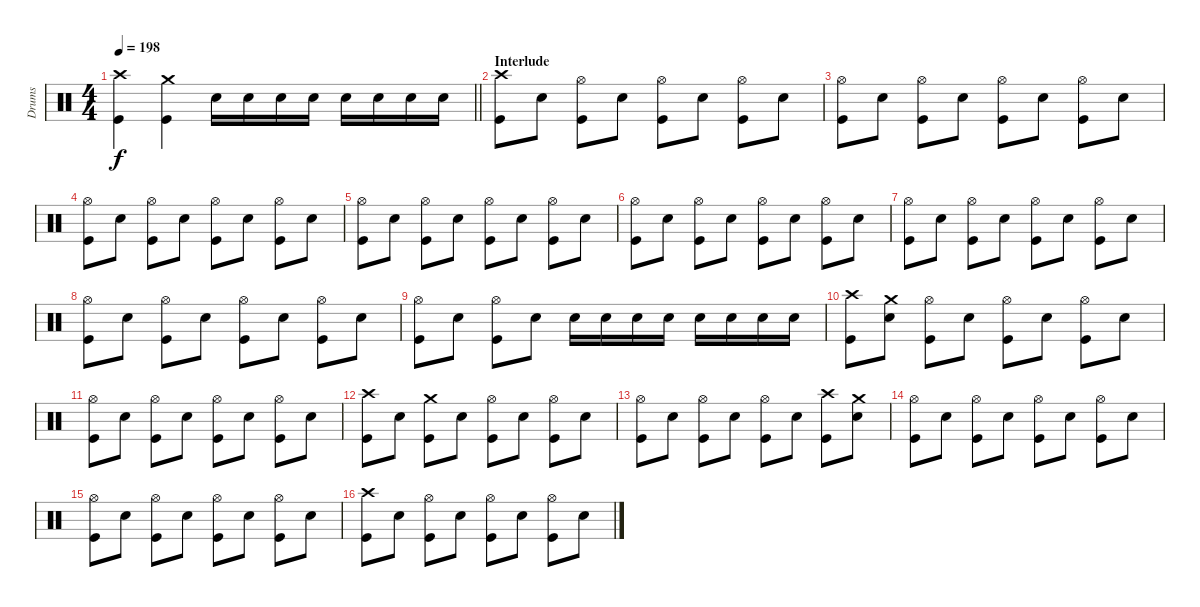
\track ("Drums" "Drums") {instrument percussion}
\staff {score}
\articulation defaults
\ts (4 4)
\tempo 198
\clef neutral
\barLineRight lightlight
\ks c
("Crash high (hit)" "Kick (hit)").4{dy f} ("Crash medium (hit)" "Kick (hit)").4 "Electric Snare (hit)".16 "Electric Snare (hit)".16 "Electric Snare (hit)".16 "Electric Snare (hit)".16 "Electric Snare (hit)".16 "Electric Snare (hit)".16 "Electric Snare (hit)".16 "Electric Snare (hit)".16 |
\section ("" "Interlude")
("Crash high (hit)" "Kick (hit)").8 "Electric Snare (hit)".8 ("Hi-Hat (open)" "Kick (hit)").8 "Electric Snare (hit)".8 ("Hi-Hat (open)" "Kick (hit)").8 "Electric Snare (hit)".8 ("Hi-Hat (open)" "Kick (hit)").8 "Electric Snare (hit)".8 |
("Hi-Hat (open)" "Kick (hit)").8 "Electric Snare (hit)".8 ("Hi-Hat (open)" "Kick (hit)").8 "Electric Snare (hit)".8 ("Hi-Hat (open)" "Kick (hit)").8 "Electric Snare (hit)".8 ("Hi-Hat (open)" "Kick (hit)").8 "Electric Snare (hit)".8 |
("Hi-Hat (open)" "Kick (hit)").8 "Electric Snare (hit)".8 ("Hi-Hat (open)" "Kick (hit)").8 "Electric Snare (hit)".8 ("Hi-Hat (open)" "Kick (hit)").8 "Electric Snare (hit)".8 ("Hi-Hat (open)" "Kick (hit)").8 "Electric Snare (hit)".8 |
("Hi-Hat (open)" "Kick (hit)").8 "Electric Snare (hit)".8 ("Hi-Hat (open)" "Kick (hit)").8 "Electric Snare (hit)".8 ("Hi-Hat (open)" "Kick (hit)").8 "Electric Snare (hit)".8 ("Hi-Hat (open)" "Kick (hit)").8 "Electric Snare (hit)".8 |
("Hi-Hat (open)" "Kick (hit)").8 "Electric Snare (hit)".8 ("Hi-Hat (open)" "Kick (hit)").8 "Electric Snare (hit)".8 ("Hi-Hat (open)" "Kick (hit)").8 "Electric Snare (hit)".8 ("Hi-Hat (open)" "Kick (hit)").8 "Electric Snare (hit)".8 |
("Hi-Hat (open)" "Kick (hit)").8 "Electric Snare (hit)".8 ("Hi-Hat (open)" "Kick (hit)").8 "Electric Snare (hit)".8 ("Hi-Hat (open)" "Kick (hit)").8 "Electric Snare (hit)".8 ("Hi-Hat (open)" "Kick (hit)").8 "Electric Snare (hit)".8 |
("Hi-Hat (open)" "Kick (hit)").8 "Electric Snare (hit)".8 ("Hi-Hat (open)" "Kick (hit)").8 "Electric Snare (hit)".8 ("Hi-Hat (open)" "Kick (hit)").8 "Electric Snare (hit)".8 ("Hi-Hat (open)" "Kick (hit)").8 "Electric Snare (hit)".8 |
("Hi-Hat (open)" "Kick (hit)").8 "Electric Snare (hit)".8 ("Hi-Hat (open)" "Kick (hit)").8 "Electric Snare (hit)".8 "Electric Snare (hit)".16 "Electric Snare (hit)".16 "Electric Snare (hit)".16 "Electric Snare (hit)".16 "Electric Snare (hit)".16 "Electric Snare (hit)".16 "Electric Snare (hit)".16 "Electric Snare (hit)".16 |
("Crash high (hit)" "Kick (hit)").8 ("Crash medium (hit)" "Electric Snare (hit)").8 ("Hi-Hat (open)" "Kick (hit)").8 "Electric Snare (hit)".8 ("Hi-Hat (open)" "Kick (hit)").8 "Electric Snare (hit)".8 ("Hi-Hat (open)" "Kick (hit)").8 "Electric Snare (hit)".8 |
("Hi-Hat (open)" "Kick (hit)").8 "Electric Snare (hit)".8 ("Hi-Hat (open)" "Kick (hit)").8 "Electric Snare (hit)".8 ("Hi-Hat (open)" "Kick (hit)").8 "Electric Snare (hit)".8 ("Hi-Hat (open)" "Kick (hit)").8 "Electric Snare (hit)".8 |
("Crash high (hit)" "Kick (hit)").8 "Electric Snare (hit)".8 ("Crash medium (hit)" "Kick (hit)").8 "Electric Snare (hit)".8 ("Hi-Hat (open)" "Kick (hit)").8 "Electric Snare (hit)".8 ("Hi-Hat (open)" "Kick (hit)").8 "Electric Snare (hit)".8 |
("Hi-Hat (open)" "Kick (hit)").8 "Electric Snare (hit)".8 ("Hi-Hat (open)" "Kick (hit)").8 "Electric Snare (hit)".8 ("Hi-Hat (open)" "Kick (hit)").8 "Electric Snare (hit)".8 ("Crash high (hit)" "Kick (hit)").8 ("Crash medium (hit)" "Electric Snare (hit)").8 |
("Hi-Hat (open)" "Kick (hit)").8 "Electric Snare (hit)".8 ("Hi-Hat (open)" "Kick (hit)").8 "Electric Snare (hit)".8 ("Hi-Hat (open)" "Kick (hit)").8 "Electric Snare (hit)".8 ("Hi-Hat (open)" "Kick (hit)").8 "Electric Snare (hit)".8 |
("Hi-Hat (open)" "Kick (hit)").8 "Electric Snare (hit)".8 ("Hi-Hat (open)" "Kick (hit)").8 "Electric Snare (hit)".8 ("Hi-Hat (open)" "Kick (hit)").8 "Electric Snare (hit)".8 ("Hi-Hat (open)" "Kick (hit)").8 "Electric Snare (hit)".8 |
("Crash high (hit)" "Kick (hit)").8 "Electric Snare (hit)".8 ("Hi-Hat (open)" "Kick (hit)").8 "Electric Snare (hit)".8 ("Hi-Hat (open)" "Kick (hit)").8 "Electric Snare (hit)".8 ("Hi-Hat (open)" "Kick (hit)").8 "Electric Snare (hit)".8
